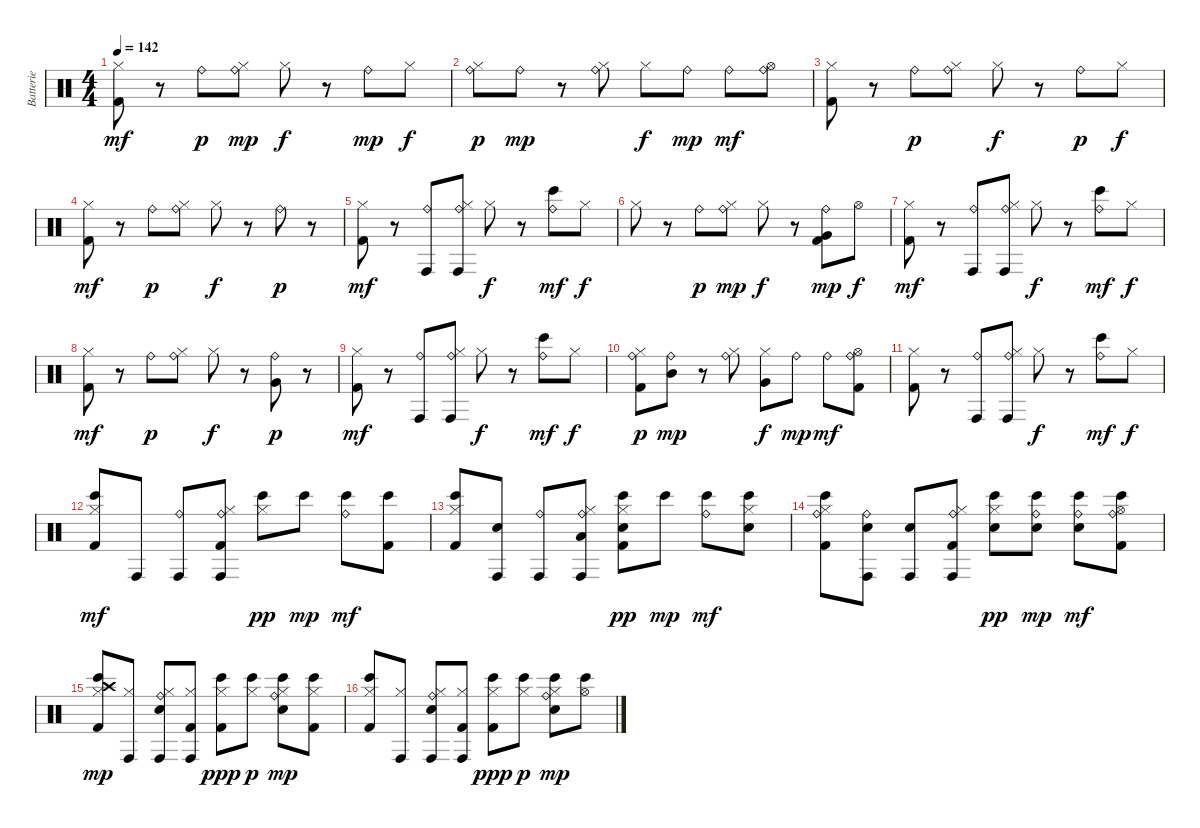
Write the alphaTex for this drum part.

\track ("Batterie" "Batterie") {instrument percussion}
\staff {score}
\articulation defaults
\ts (4 4)
\tempo 142
\clef neutral
\ks c
("Kick (hit) 2" "Hi-Hat (closed)").8{dy mf} r.8 "Ride (bell)".8{dy p} ("Hi-Hat (closed)" "Ride (bell)").8{dy mp} "Hi-Hat (closed)".8{dy f} r.8 "Ride (bell)".8{dy mp} "Hi-Hat (closed)".8{dy f} |
("Hi-Hat (closed)" "Ride (bell)").8{dy p} "Ride (bell)".8{dy mp} r.8 ("Hi-Hat (closed)" "Ride (bell)").8 "Hi-Hat (closed)".8{dy f} "Ride (bell)".8{dy mp} "Ride (bell)".8{dy mf} ("Hi-Hat (open)" "Ride (bell)").8 |
("Kick (hit) 2" "Hi-Hat (closed)").8 r.8 "Ride (bell)".8{dy p} ("Hi-Hat (closed)" "Ride (bell)").8 "Hi-Hat (closed)".8{dy f} r.8 "Ride (bell)".8{dy p} "Hi-Hat (closed)".8{dy f} |
("Kick (hit) 2" "Hi-Hat (closed)").8{dy mf} r.8 "Ride (bell)".8{dy p} ("Hi-Hat (closed)" "Ride (bell)").8 "Hi-Hat (closed)".8{dy f} r.8 "Ride (bell)".8{dy p} r.8 |
("Kick (hit) 2" "Hi-Hat (closed)").8{dy mf} r.8 ("Ride (bell)" "Conga high (hit)").8 ("Hi-Hat (closed)" "Ride (bell)" "Conga high (hit)").8 "Hi-Hat (closed)".8{dy f} r.8 ("Ride (bell)" "Bongo High (hit)").8{dy mf} "Hi-Hat (closed)".8{dy f} |
"Hi-Hat (closed)".8 r.8 "Ride (bell)".8{dy p} ("Hi-Hat (closed)" "Ride (bell)").8{dy mp} "Hi-Hat (closed)".8{dy f} r.8 ("Kick (hit) 2" "Ride (bell)" "Very Low Tom (hit)").8{dy mp} "Hi-Hat (open)".8{dy f} |
("Kick (hit) 2" "Hi-Hat (closed)").8{dy mf} r.8 ("Ride (bell)" "Conga high (hit)").8 ("Hi-Hat (closed)" "Ride (bell)" "Conga high (hit)").8 "Hi-Hat (closed)".8{dy f} r.8 ("Ride (bell)" "Bongo High (hit)").8{dy mf} "Hi-Hat (closed)".8{dy f} |
("Kick (hit) 2" "Hi-Hat (closed)").8{dy mf} r.8 "Ride (bell)".8{dy p} ("Hi-Hat (closed)" "Ride (bell)").8 "Hi-Hat (closed)".8{dy f} r.8 ("Ride (bell)" "Very Low Tom (hit)").8{dy p} r.8 |
("Kick (hit) 2" "Hi-Hat (closed)").8{dy mf} r.8 ("Ride (bell)" "Conga high (hit)").8 ("Hi-Hat (closed)" "Ride (bell)" "Conga high (hit)").8 "Hi-Hat (closed)".8{dy f} r.8 ("Ride (bell)" "Bongo High (hit)").8{dy mf} "Hi-Hat (closed)".8{dy f} |
("Kick (hit) 2" "Hi-Hat (closed)" "Ride (bell)").8{dy p} ("Ride (bell)" "Mid Tom (hit)").8{dy mp} r.8 ("Hi-Hat (closed)" "Ride (bell)").8 ("Hi-Hat (closed)" "Very Low Tom (hit)").8{dy f} "Ride (bell)".8{dy mp} "Ride (bell)".8{dy mf} ("Kick (hit) 2" "Hi-Hat (open)" "Ride (bell)").8 |
("Kick (hit) 2" "Hi-Hat (closed)").8 r.8 ("Ride (bell)" "Conga high (hit)").8 ("Hi-Hat (closed)" "Ride (bell)" "Conga high (hit)").8 "Hi-Hat (closed)".8{dy f} r.8 ("Ride (bell)" "Bongo High (hit)").8{dy mf} "Hi-Hat (closed)".8{dy f} |
("Kick (hit) 2" "Hi-Hat (closed)" "Bongo High (hit)").8{dy mf} "Conga high (hit)".8 ("Ride (bell)" "Conga high (hit)").8 ("Kick (hit) 2" "Hi-Hat (closed)" "Ride (bell)" "Conga high (hit)").8 ("Hi-Hat (closed)" "Bongo High (hit)").8{dy pp} "Bongo High (hit)".8{dy mp} ("Ride (bell)" "Bongo High (hit)").8{dy mf} ("Kick (hit) 2" "Bongo High (hit)").8 |
("Kick (hit) 2" "Hi-Hat (closed)" "Bongo High (hit)").8 ("Electric Snare (hit)" "Conga high (hit)").8 ("Ride (bell)" "Conga high (hit)").8 ("Hi-Hat (closed)" "Ride (bell)" "Low Floor Tom (hit)" "Conga high (hit)").8 ("Kick (hit) 2" "Electric Snare (hit)" "Hi-Hat (closed)" "Bongo High (hit)").8{dy pp} "Bongo High (hit)".8{dy mp} ("Ride (bell)" "Bongo High (hit)").8{dy mf} ("Electric Snare (hit)" "Hi-Hat (closed)" "Bongo High (hit)").8 |
("Kick (hit) 2" "Hi-Hat (closed)" "Ride (bell)" "Bongo High (hit)").8 ("Electric Snare (hit)" "Ride (bell)" "Conga high (hit)").8 ("Electric Snare (hit)" "Conga high (hit)").8 ("Kick (hit) 2" "Hi-Hat (closed)" "Ride (bell)" "Conga high (hit)").8 ("Electric Snare (hit)" "Hi-Hat (closed)" "Bongo High (hit)").8{dy pp} ("Electric Snare (hit)" "Ride (bell)" "Bongo High (hit)").8{dy mp} ("Electric Snare (hit)" "Ride (bell)" "Bongo High (hit)").8{dy mf} ("Kick (hit) 2" "Hi-Hat (open)" "Ride (bell)" "Bongo High (hit)").8 |
("Kick (hit) 2" "Hi-Hat (closed)" "Crash high (hit)" "Bongo High (hit)").8{dy mp} ("Hi-Hat (closed)" "Conga high (hit)").8 ("Electric Snare (hit)" "Hi-Hat (closed)" "Ride (bell)" "Conga high (hit)").8 ("Kick (hit) 2" "Hi-Hat (closed)" "Conga high (hit)").8 ("Kick (hit) 2" "Hi-Hat (closed)" "Bongo High (hit)").8{dy ppp} ("Hi-Hat (closed)" "Bongo High (hit)").8{dy p} ("Electric Snare (hit)" "Hi-Hat (closed)" "Ride (bell)" "Bongo High (hit)").8{dy mp} ("Kick (hit) 2" "Hi-Hat (closed)" "Bongo High (hit)").8 |
("Kick (hit) 2" "Hi-Hat (closed)" "Bongo High (hit)").8 ("Hi-Hat (closed)" "Conga high (hit)").8 ("Electric Snare (hit)" "Hi-Hat (closed)" "Ride (bell)" "Conga high (hit)").8 ("Kick (hit) 2" "Hi-Hat (closed)" "Conga high (hit)").8 ("Kick (hit) 2" "Hi-Hat (closed)" "Bongo High (hit)").8{dy ppp} ("Hi-Hat (closed)" "Bongo High (hit)").8{dy p} ("Electric Snare (hit)" "Hi-Hat (closed)" "Ride (bell)" "Bongo High (hit)").8{dy mp} ("Hi-Hat (open)" "Bongo High (hit)").8
